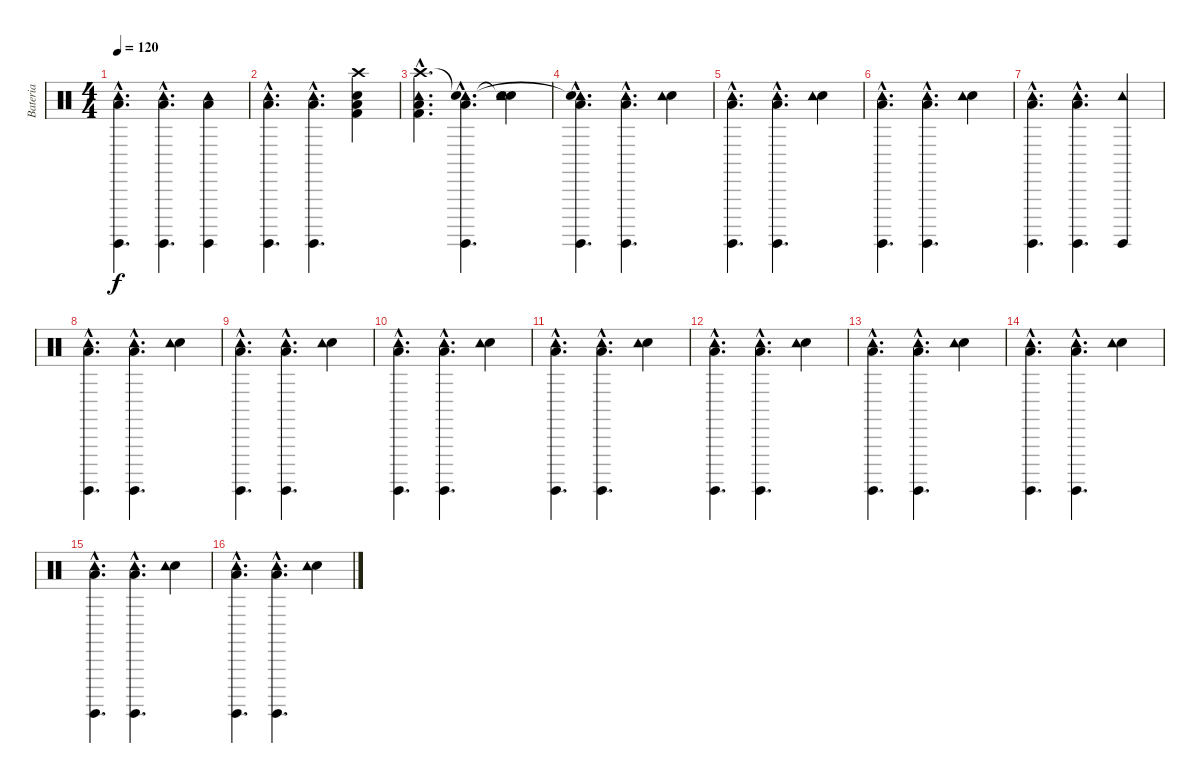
\track ("Bateria" "Bateria") {instrument percussion}
\staff {score}
\articulation defaults
\ts (4 4)
\tempo 120
\clef neutral
\ks c
("Low Tom (hit)"{hac} "Surdo (hit)"{hac} "Tambourine (hit)"{hac}).4{d dy f} ("Low Tom (hit)"{hac} "Surdo (hit)"{hac} "Tambourine (hit)"{hac}).4{d} ("Low Tom (hit)" "Surdo (hit)" "Tambourine (hit)").4 |
("Low Tom (hit)"{hac} "Surdo (hit)"{hac} "Tambourine (hit)"{hac}).4{d} ("Low Tom (hit)"{hac} "Surdo (hit)"{hac} "Tambourine (hit)"{hac}).4{d} ("Kick (hit) 2" "Low Tom (hit)" "Electric Snare (hit)" "Crash high (hit)").4 |
("Kick (hit) 2"{hac} "Low Tom (hit)"{hac} "Tambourine (hit)"{hac} "Crash high (hit)"{hac}).4{d} ("Low Tom (hit)"{hac} "Surdo (hit)"{hac} "Tambourine (hit)"{hac} "Snare (hit)"{hac t}).4{d} ("Electric Snare (hit)" "Tambourine (hit)" "Snare (hit)"{t}).4 |
("Low Tom (hit)"{hac} "Surdo (hit)"{hac} "Tambourine (hit)"{hac} "Snare (hit)"{hac t}).4{d} ("Low Tom (hit)"{hac} "Surdo (hit)"{hac} "Tambourine (hit)"{hac}).4{d} ("Electric Snare (hit)" "Tambourine (hit)").4 |
("Low Tom (hit)"{hac} "Surdo (hit)"{hac} "Tambourine (hit)"{hac}).4{d} ("Low Tom (hit)"{hac} "Surdo (hit)"{hac} "Tambourine (hit)"{hac}).4{d} ("Electric Snare (hit)" "Tambourine (hit)").4 |
("Low Tom (hit)"{hac} "Surdo (hit)"{hac} "Tambourine (hit)"{hac}).4{d} ("Low Tom (hit)"{hac} "Surdo (hit)"{hac} "Tambourine (hit)"{hac}).4{d} ("Electric Snare (hit)" "Tambourine (hit)").4 |
("Low Tom (hit)"{hac} "Surdo (hit)"{hac} "Tambourine (hit)"{hac}).4{d} ("Low Tom (hit)"{hac} "Surdo (hit)"{hac} "Tambourine (hit)"{hac}).4{d} ("Surdo (hit)" "Tambourine (hit)").4 |
("Low Tom (hit)"{hac} "Surdo (hit)"{hac} "Tambourine (hit)"{hac}).4{d} ("Low Tom (hit)"{hac} "Surdo (hit)"{hac} "Tambourine (hit)"{hac}).4{d} ("Electric Snare (hit)" "Tambourine (hit)").4 |
("Low Tom (hit)"{hac} "Surdo (hit)"{hac} "Tambourine (hit)"{hac}).4{d} ("Low Tom (hit)"{hac} "Surdo (hit)"{hac} "Tambourine (hit)"{hac}).4{d} ("Electric Snare (hit)" "Tambourine (hit)").4 |
("Low Tom (hit)"{hac} "Surdo (hit)"{hac} "Tambourine (hit)"{hac}).4{d} ("Low Tom (hit)"{hac} "Surdo (hit)"{hac} "Tambourine (hit)"{hac}).4{d} ("Electric Snare (hit)" "Tambourine (hit)").4 |
("Low Tom (hit)"{hac} "Surdo (hit)"{hac} "Tambourine (hit)"{hac}).4{d} ("Low Tom (hit)"{hac} "Surdo (hit)"{hac} "Tambourine (hit)"{hac}).4{d} ("Electric Snare (hit)" "Tambourine (hit)").4 |
("Low Tom (hit)"{hac} "Surdo (hit)"{hac} "Tambourine (hit)"{hac}).4{d} ("Low Tom (hit)"{hac} "Surdo (hit)"{hac} "Tambourine (hit)"{hac}).4{d} ("Electric Snare (hit)" "Tambourine (hit)").4 |
("Low Tom (hit)"{hac} "Surdo (hit)"{hac} "Tambourine (hit)"{hac}).4{d} ("Low Tom (hit)"{hac} "Surdo (hit)"{hac} "Tambourine (hit)"{hac}).4{d} ("Electric Snare (hit)" "Tambourine (hit)").4 |
("Low Tom (hit)"{hac} "Surdo (hit)"{hac} "Tambourine (hit)"{hac}).4{d} ("Low Tom (hit)"{hac} "Surdo (hit)"{hac} "Tambourine (hit)"{hac}).4{d} ("Electric Snare (hit)" "Tambourine (hit)").4 |
("Low Tom (hit)"{hac} "Surdo (hit)"{hac} "Tambourine (hit)"{hac}).4{d} ("Low Tom (hit)"{hac} "Surdo (hit)"{hac} "Tambourine (hit)"{hac}).4{d} ("Electric Snare (hit)" "Tambourine (hit)").4 |
("Low Tom (hit)"{hac} "Surdo (hit)"{hac} "Tambourine (hit)"{hac}).4{d} ("Low Tom (hit)"{hac} "Surdo (hit)"{hac} "Tambourine (hit)"{hac}).4{d} ("Electric Snare (hit)" "Tambourine (hit)").4
